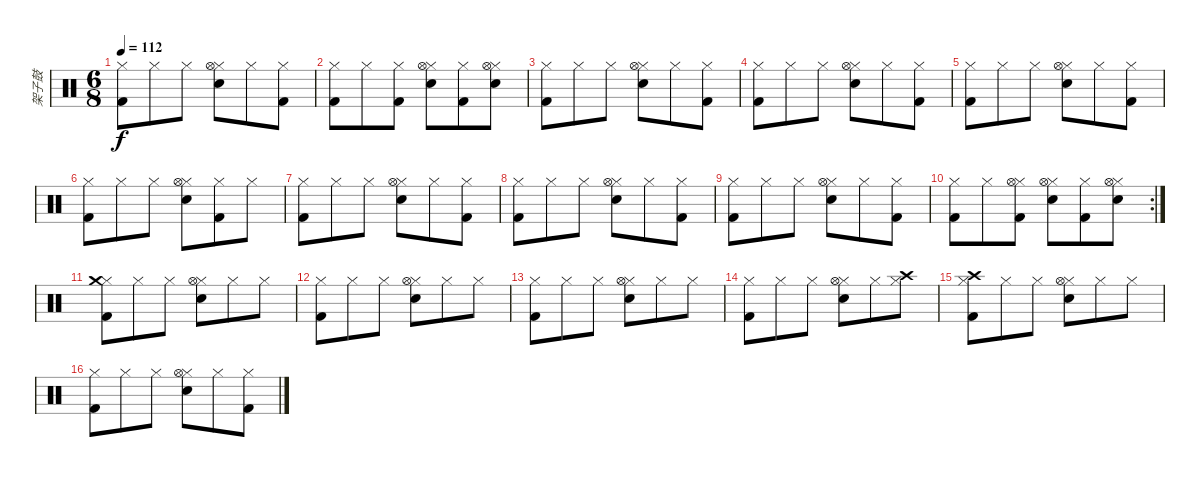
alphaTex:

\track ("架子鼓" "架子鼓") {instrument percussion bank 1}
\staff {score}
\articulation defaults
\ts (6 8)
\tempo 112
\clef neutral
\ks c
("Hi-Hat (closed)" "Kick (hit) 2").8{dy f} "Hi-Hat (closed)".8 "Hi-Hat (closed)".8 ("Hi-Hat (closed)" "Snare (hit) 2" "Hi-Hat (open)").8 "Hi-Hat (closed)".8 ("Hi-Hat (closed)" "Kick (hit) 2").8 |
("Hi-Hat (closed)" "Kick (hit) 2").8 "Hi-Hat (closed)".8 ("Hi-Hat (closed)" "Kick (hit) 2").8 ("Hi-Hat (closed)" "Snare (hit) 2" "Hi-Hat (open)").8 ("Hi-Hat (closed)" "Kick (hit) 2").8 ("Hi-Hat (closed)" "Snare (hit) 2" "Hi-Hat (open)").8 |
("Hi-Hat (closed)" "Kick (hit) 2").8 "Hi-Hat (closed)".8 "Hi-Hat (closed)".8 ("Hi-Hat (closed)" "Snare (hit) 2" "Hi-Hat (open)").8 "Hi-Hat (closed)".8 ("Hi-Hat (closed)" "Kick (hit) 2").8 |
("Hi-Hat (closed)" "Kick (hit) 2").8 "Hi-Hat (closed)".8 "Hi-Hat (closed)".8 ("Hi-Hat (closed)" "Snare (hit) 2" "Hi-Hat (open)").8 "Hi-Hat (closed)".8 ("Hi-Hat (closed)" "Kick (hit) 2").8 |
("Hi-Hat (closed)" "Kick (hit) 2").8 "Hi-Hat (closed)".8 "Hi-Hat (closed)".8 ("Hi-Hat (closed)" "Snare (hit) 2" "Hi-Hat (open)").8 "Hi-Hat (closed)".8 ("Hi-Hat (closed)" "Kick (hit) 2").8 |
("Hi-Hat (closed)" "Kick (hit) 2").8 "Hi-Hat (closed)".8 "Hi-Hat (closed)".8 ("Hi-Hat (closed)" "Snare (hit) 2" "Hi-Hat (open)").8 ("Hi-Hat (closed)" "Kick (hit) 2").8 "Hi-Hat (closed)".8 |
("Hi-Hat (closed)" "Kick (hit) 2").8 "Hi-Hat (closed)".8 "Hi-Hat (closed)".8 ("Hi-Hat (closed)" "Snare (hit) 2" "Hi-Hat (open)").8 "Hi-Hat (closed)".8 ("Hi-Hat (closed)" "Kick (hit) 2").8 |
("Hi-Hat (closed)" "Kick (hit) 2").8 "Hi-Hat (closed)".8 "Hi-Hat (closed)".8 ("Hi-Hat (closed)" "Snare (hit) 2" "Hi-Hat (open)").8 "Hi-Hat (closed)".8 ("Hi-Hat (closed)" "Kick (hit) 2").8 |
("Hi-Hat (closed)" "Kick (hit) 2").8 "Hi-Hat (closed)".8 "Hi-Hat (closed)".8 ("Hi-Hat (closed)" "Snare (hit) 2" "Hi-Hat (open)").8 "Hi-Hat (closed)".8 ("Hi-Hat (closed)" "Kick (hit) 2").8 |
\rc 2
("Hi-Hat (closed)" "Kick (hit) 2").8 "Hi-Hat (closed)".8 ("Hi-Hat (closed)" "Hi-Hat (open)" "Kick (hit) 2").8 ("Hi-Hat (closed)" "Snare (hit) 2" "Hi-Hat (open)").8 ("Hi-Hat (closed)" "Kick (hit) 2").8 ("Hi-Hat (closed)" "Snare (hit) 2" "Hi-Hat (open)").8 |
("Hi-Hat (closed)" "Kick (hit) 2" "Crash medium (hit)").8 "Hi-Hat (closed)".8 "Hi-Hat (closed)".8 ("Hi-Hat (closed)" "Snare (hit) 2" "Hi-Hat (open)").8 "Hi-Hat (closed)".8 "Hi-Hat (closed)".8 |
("Hi-Hat (closed)" "Kick (hit) 2").8 "Hi-Hat (closed)".8 "Hi-Hat (closed)".8 ("Hi-Hat (closed)" "Snare (hit) 2" "Hi-Hat (open)").8 "Hi-Hat (closed)".8 "Hi-Hat (closed)".8 |
("Hi-Hat (closed)" "Kick (hit) 2").8 "Hi-Hat (closed)".8 "Hi-Hat (closed)".8 ("Hi-Hat (closed)" "Snare (hit) 2" "Hi-Hat (open)").8 "Hi-Hat (closed)".8 "Hi-Hat (closed)".8 |
("Hi-Hat (closed)" "Kick (hit) 2").8 "Hi-Hat (closed)".8 "Hi-Hat (closed)".8 ("Hi-Hat (closed)" "Snare (hit) 2" "Hi-Hat (open)").8 "Hi-Hat (closed)".8 ("Hi-Hat (closed)" "Crash high (hit)").8 |
("Hi-Hat (closed)" "Kick (hit) 2" "Crash high (hit)").8 "Hi-Hat (closed)".8 "Hi-Hat (closed)".8 ("Hi-Hat (closed)" "Snare (hit) 2" "Hi-Hat (open)").8 "Hi-Hat (closed)".8 "Hi-Hat (closed)".8 |
("Hi-Hat (closed)" "Kick (hit) 2").8 "Hi-Hat (closed)".8 "Hi-Hat (closed)".8 ("Hi-Hat (closed)" "Snare (hit) 2" "Hi-Hat (open)").8 "Hi-Hat (closed)".8 ("Hi-Hat (closed)" "Kick (hit) 2").8
